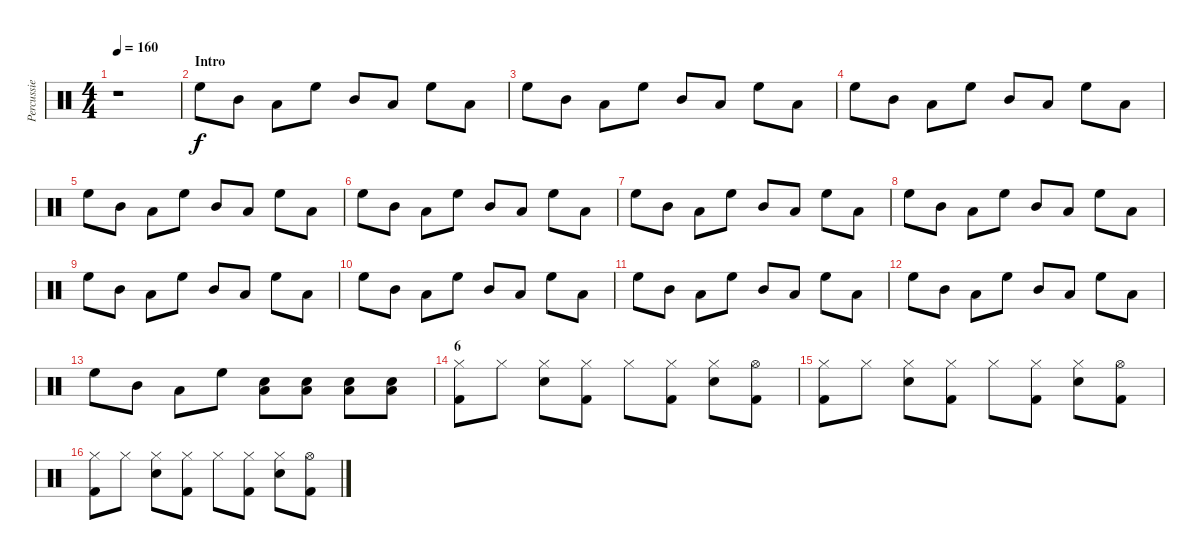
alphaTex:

\track ("Percussie" "Percussie") {instrument percussion}
\staff {score}
\articulation defaults
\ts (4 4)
\tempo 160
\clef neutral
\ks c
r.1{dy f} |
\section ("" "Intro")
"High Floor Tom (hit)".8 "Mid Tom (hit)".8 "Low Floor Tom (hit)".8 "High Floor Tom (hit)".8 "Mid Tom (hit)".8 "Low Floor Tom (hit)".8 "High Floor Tom (hit)".8 "Low Floor Tom (hit)".8 |
"High Floor Tom (hit)".8 "Mid Tom (hit)".8 "Low Floor Tom (hit)".8 "High Floor Tom (hit)".8 "Mid Tom (hit)".8 "Low Floor Tom (hit)".8 "High Floor Tom (hit)".8 "Low Floor Tom (hit)".8 |
"High Floor Tom (hit)".8 "Mid Tom (hit)".8 "Low Floor Tom (hit)".8 "High Floor Tom (hit)".8 "Mid Tom (hit)".8 "Low Floor Tom (hit)".8 "High Floor Tom (hit)".8 "Low Floor Tom (hit)".8 |
"High Floor Tom (hit)".8 "Mid Tom (hit)".8 "Low Floor Tom (hit)".8 "High Floor Tom (hit)".8 "Mid Tom (hit)".8 "Low Floor Tom (hit)".8 "High Floor Tom (hit)".8 "Low Floor Tom (hit)".8 |
"High Floor Tom (hit)".8 "Mid Tom (hit)".8 "Low Floor Tom (hit)".8 "High Floor Tom (hit)".8 "Mid Tom (hit)".8 "Low Floor Tom (hit)".8 "High Floor Tom (hit)".8 "Low Floor Tom (hit)".8 |
"High Floor Tom (hit)".8 "Mid Tom (hit)".8 "Low Floor Tom (hit)".8 "High Floor Tom (hit)".8 "Mid Tom (hit)".8 "Low Floor Tom (hit)".8 "High Floor Tom (hit)".8 "Low Floor Tom (hit)".8 |
"High Floor Tom (hit)".8 "Mid Tom (hit)".8 "Low Floor Tom (hit)".8 "High Floor Tom (hit)".8 "Mid Tom (hit)".8 "Low Floor Tom (hit)".8 "High Floor Tom (hit)".8 "Low Floor Tom (hit)".8 |
"High Floor Tom (hit)".8 "Mid Tom (hit)".8 "Low Floor Tom (hit)".8 "High Floor Tom (hit)".8 "Mid Tom (hit)".8 "Low Floor Tom (hit)".8 "High Floor Tom (hit)".8 "Low Floor Tom (hit)".8 |
"High Floor Tom (hit)".8 "Mid Tom (hit)".8 "Low Floor Tom (hit)".8 "High Floor Tom (hit)".8 "Mid Tom (hit)".8 "Low Floor Tom (hit)".8 "High Floor Tom (hit)".8 "Low Floor Tom (hit)".8 |
"High Floor Tom (hit)".8 "Mid Tom (hit)".8 "Low Floor Tom (hit)".8 "High Floor Tom (hit)".8 "Mid Tom (hit)".8 "Low Floor Tom (hit)".8 "High Floor Tom (hit)".8 "Low Floor Tom (hit)".8 |
"High Floor Tom (hit)".8 "Mid Tom (hit)".8 "Low Floor Tom (hit)".8 "High Floor Tom (hit)".8 "Mid Tom (hit)".8 "Low Floor Tom (hit)".8 "High Floor Tom (hit)".8 "Low Floor Tom (hit)".8 |
"High Floor Tom (hit)".8 "Mid Tom (hit)".8 "Low Floor Tom (hit)".8{volume 3} "High Floor Tom (hit)".8 ("Snare (hit) 2" "Low Floor Tom (hit)").8{volume 16} ("Snare (hit) 2" "Low Floor Tom (hit)").8 ("Snare (hit) 2" "Low Floor Tom (hit)").8 ("Snare (hit) 2" "Low Floor Tom (hit)").8 |
\section ("" "6")
("Hi-Hat (closed)" "Kick (hit) 2").8 "Hi-Hat (closed)".8 ("Hi-Hat (closed)" "Snare (hit) 2").8 ("Hi-Hat (closed)" "Kick (hit) 2").8 "Hi-Hat (closed)".8 ("Hi-Hat (closed)" "Kick (hit) 2").8 ("Hi-Hat (closed)" "Snare (hit) 2").8 ("Hi-Hat (open)" "Kick (hit) 2").8 |
("Hi-Hat (closed)" "Kick (hit) 2").8 "Hi-Hat (closed)".8 ("Hi-Hat (closed)" "Snare (hit) 2").8 ("Hi-Hat (closed)" "Kick (hit) 2").8 "Hi-Hat (closed)".8 ("Hi-Hat (closed)" "Kick (hit) 2").8 ("Hi-Hat (closed)" "Snare (hit) 2").8 ("Hi-Hat (open)" "Kick (hit) 2").8 |
("Hi-Hat (closed)" "Kick (hit) 2").8 "Hi-Hat (closed)".8 ("Hi-Hat (closed)" "Snare (hit) 2").8 ("Hi-Hat (closed)" "Kick (hit) 2").8 "Hi-Hat (closed)".8 ("Hi-Hat (closed)" "Kick (hit) 2").8 ("Hi-Hat (closed)" "Snare (hit) 2").8 ("Hi-Hat (open)" "Kick (hit) 2").8
